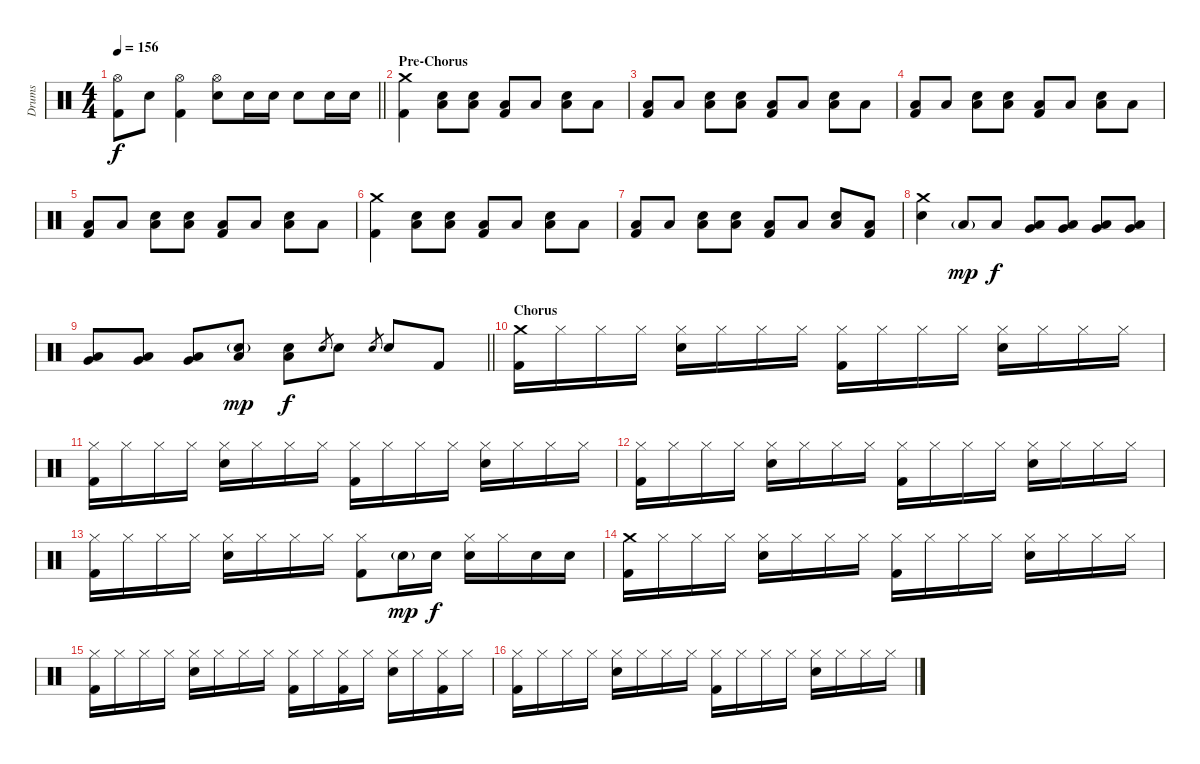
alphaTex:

\track ("Drums" "Drums") {instrument percussion}
\staff {score}
\articulation defaults
\ts (4 4)
\tempo 156
\clef neutral
\barLineRight lightlight
\ks c
("Hi-Hat (open)" "Kick (hit) 2").8{dy f} "Electric Snare (hit)".8 ("Hi-Hat (open)" "Kick (hit) 2").4 ("Hi-Hat (open)" "Electric Snare (hit)").8 "Electric Snare (hit)".16 "Electric Snare (hit)".16 "Electric Snare (hit)".8 "Electric Snare (hit)".16 "Electric Snare (hit)".16 |
\section ("" "Pre-Chorus")
("Crash medium (hit)" "Kick (hit) 2").4 ("Low Floor Tom (hit)" "Electric Snare (hit)").8 ("Low Floor Tom (hit)" "Electric Snare (hit)").8 ("Low Floor Tom (hit)" "Kick (hit) 2").8 "Low Floor Tom (hit)".8 ("Low Floor Tom (hit)" "Electric Snare (hit)").8 "Low Floor Tom (hit)".8 |
("Low Floor Tom (hit)" "Kick (hit) 2").8 "Low Floor Tom (hit)".8 ("Low Floor Tom (hit)" "Electric Snare (hit)").8 ("Low Floor Tom (hit)" "Electric Snare (hit)").8 ("Low Floor Tom (hit)" "Kick (hit) 2").8 "Low Floor Tom (hit)".8 ("Low Floor Tom (hit)" "Electric Snare (hit)").8 "Low Floor Tom (hit)".8 |
("Low Floor Tom (hit)" "Kick (hit) 2").8 "Low Floor Tom (hit)".8 ("Low Floor Tom (hit)" "Electric Snare (hit)").8 ("Low Floor Tom (hit)" "Electric Snare (hit)").8 ("Low Floor Tom (hit)" "Kick (hit) 2").8 "Low Floor Tom (hit)".8 ("Low Floor Tom (hit)" "Electric Snare (hit)").8 "Low Floor Tom (hit)".8 |
("Low Floor Tom (hit)" "Kick (hit) 2").8 "Low Floor Tom (hit)".8 ("Low Floor Tom (hit)" "Electric Snare (hit)").8 ("Low Floor Tom (hit)" "Electric Snare (hit)").8 ("Low Floor Tom (hit)" "Kick (hit) 2").8 "Low Floor Tom (hit)".8 ("Low Floor Tom (hit)" "Electric Snare (hit)").8 "Low Floor Tom (hit)".8 |
("Crash medium (hit)" "Kick (hit) 2").4 ("Low Floor Tom (hit)" "Electric Snare (hit)").8 ("Low Floor Tom (hit)" "Electric Snare (hit)").8 ("Low Floor Tom (hit)" "Kick (hit) 2").8 "Low Floor Tom (hit)".8 ("Low Floor Tom (hit)" "Electric Snare (hit)").8 "Low Floor Tom (hit)".8 |
("Low Floor Tom (hit)" "Kick (hit) 2").8 "Low Floor Tom (hit)".8 ("Low Floor Tom (hit)" "Electric Snare (hit)").8 ("Low Floor Tom (hit)" "Electric Snare (hit)").8 ("Low Floor Tom (hit)" "Kick (hit) 2").8 "Low Floor Tom (hit)".8 ("Low Floor Tom (hit)" "Electric Snare (hit)").8 ("Low Floor Tom (hit)" "Kick (hit) 2").8 |
("Crash medium (hit)" "Electric Snare (hit)").4 "Low Floor Tom (hit)"{g}.8{dy mp} "Low Floor Tom (hit)".8{dy f} ("Very Low Tom (hit)" "Low Floor Tom (hit)").8 ("Very Low Tom (hit)" "Low Floor Tom (hit)").8 ("Low Tom (hit)" "Very Low Tom (hit)").8 ("Low Tom (hit)" "Very Low Tom (hit)").8 |
\barLineRight lightlight
("Low Tom (hit)" "Very Low Tom (hit)").8 ("Low Tom (hit)" "Very Low Tom (hit)").8 ("Low Tom (hit)" "Very Low Tom (hit)").8 ("Electric Snare (hit)"{g} "Low Tom (hit)").8{dy mp} ("Electric Snare (hit)" "Low Tom (hit)").8{dy f} "Electric Snare (hit)".8{gr} "Electric Snare (hit)".8 "Electric Snare (hit)".8{gr} "Electric Snare (hit)".8 "Kick (hit) 2".8 |
\section ("" "Chorus")
("Crash medium (hit)" "Kick (hit) 2").16 "Hi-Hat (closed)".16 "Hi-Hat (closed)".16 "Hi-Hat (closed)".16 ("Hi-Hat (closed)" "Electric Snare (hit)").16 "Hi-Hat (closed)".16 "Hi-Hat (closed)".16 "Hi-Hat (closed)".16 ("Hi-Hat (closed)" "Kick (hit) 2").16 "Hi-Hat (closed)".16 "Hi-Hat (closed)".16 "Hi-Hat (closed)".16 ("Hi-Hat (closed)" "Electric Snare (hit)").16 "Hi-Hat (closed)".16 "Hi-Hat (closed)".16 "Hi-Hat (closed)".16 |
("Hi-Hat (closed)" "Kick (hit) 2").16 "Hi-Hat (closed)".16 "Hi-Hat (closed)".16 "Hi-Hat (closed)".16 ("Hi-Hat (closed)" "Electric Snare (hit)").16 "Hi-Hat (closed)".16 "Hi-Hat (closed)".16 "Hi-Hat (closed)".16 ("Hi-Hat (closed)" "Kick (hit) 2").16 "Hi-Hat (closed)".16 "Hi-Hat (closed)".16 "Hi-Hat (closed)".16 ("Hi-Hat (closed)" "Electric Snare (hit)").16 "Hi-Hat (closed)".16 "Hi-Hat (closed)".16 "Hi-Hat (closed)".16 |
("Hi-Hat (closed)" "Kick (hit) 2").16 "Hi-Hat (closed)".16 "Hi-Hat (closed)".16 "Hi-Hat (closed)".16 ("Hi-Hat (closed)" "Electric Snare (hit)").16 "Hi-Hat (closed)".16 "Hi-Hat (closed)".16 "Hi-Hat (closed)".16 ("Hi-Hat (closed)" "Kick (hit) 2").16 "Hi-Hat (closed)".16 "Hi-Hat (closed)".16 "Hi-Hat (closed)".16 ("Hi-Hat (closed)" "Electric Snare (hit)").16 "Hi-Hat (closed)".16 "Hi-Hat (closed)".16 "Hi-Hat (closed)".16 |
("Hi-Hat (closed)" "Kick (hit) 2").16 "Hi-Hat (closed)".16 "Hi-Hat (closed)".16 "Hi-Hat (closed)".16 ("Hi-Hat (closed)" "Electric Snare (hit)").16 "Hi-Hat (closed)".16 "Hi-Hat (closed)".16 "Hi-Hat (closed)".16 ("Hi-Hat (closed)" "Kick (hit) 2").8 "Electric Snare (hit)"{g}.16{dy mp} "Electric Snare (hit)".16{dy f} ("Hi-Hat (closed)" "Electric Snare (hit)").16 "Hi-Hat (closed)".16 "Electric Snare (hit)".16 "Electric Snare (hit)".16 |
("Crash medium (hit)" "Kick (hit) 2").16 "Hi-Hat (closed)".16 "Hi-Hat (closed)".16 "Hi-Hat (closed)".16 ("Hi-Hat (closed)" "Electric Snare (hit)").16 "Hi-Hat (closed)".16 "Hi-Hat (closed)".16 "Hi-Hat (closed)".16 ("Hi-Hat (closed)" "Kick (hit) 2").16 "Hi-Hat (closed)".16 "Hi-Hat (closed)".16 "Hi-Hat (closed)".16 ("Hi-Hat (closed)" "Electric Snare (hit)").16 "Hi-Hat (closed)".16 "Hi-Hat (closed)".16 "Hi-Hat (closed)".16 |
("Hi-Hat (closed)" "Kick (hit) 2").16 "Hi-Hat (closed)".16 "Hi-Hat (closed)".16 "Hi-Hat (closed)".16 ("Hi-Hat (closed)" "Electric Snare (hit)").16 "Hi-Hat (closed)".16 "Hi-Hat (closed)".16 "Hi-Hat (closed)".16 ("Hi-Hat (closed)" "Kick (hit) 2").16 "Hi-Hat (closed)".16 ("Hi-Hat (closed)" "Kick (hit) 2").16 "Hi-Hat (closed)".16 ("Hi-Hat (closed)" "Electric Snare (hit)").16 "Hi-Hat (closed)".16 ("Hi-Hat (closed)" "Kick (hit) 2").16 "Hi-Hat (closed)".16 |
("Hi-Hat (closed)" "Kick (hit) 2").16 "Hi-Hat (closed)".16 "Hi-Hat (closed)".16 "Hi-Hat (closed)".16 ("Hi-Hat (closed)" "Electric Snare (hit)").16 "Hi-Hat (closed)".16 "Hi-Hat (closed)".16 "Hi-Hat (closed)".16 ("Hi-Hat (closed)" "Kick (hit) 2").16 "Hi-Hat (closed)".16 "Hi-Hat (closed)".16 "Hi-Hat (closed)".16 ("Hi-Hat (closed)" "Electric Snare (hit)").16 "Hi-Hat (closed)".16 "Hi-Hat (closed)".16 "Hi-Hat (closed)".16
